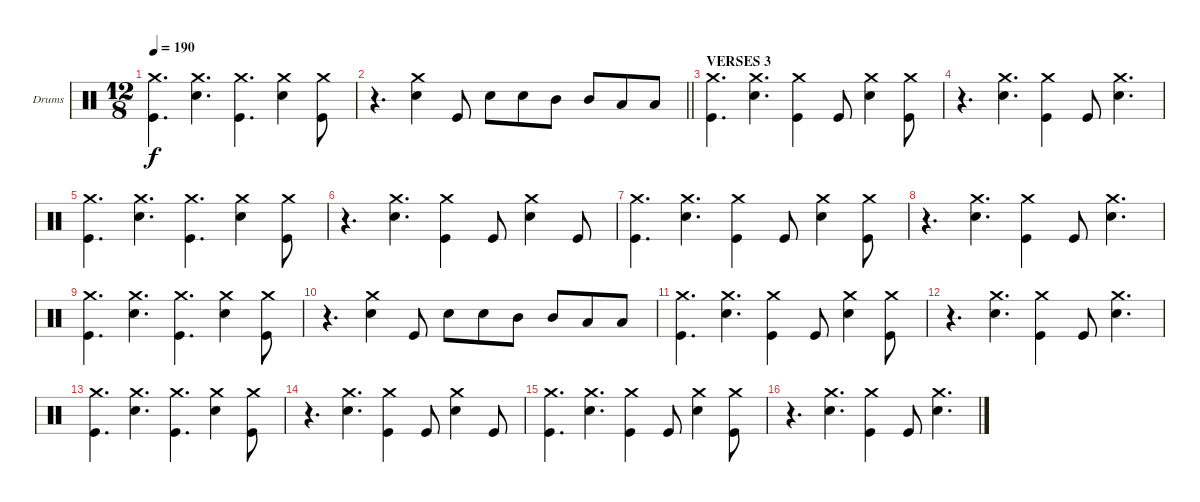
\bracketExtendMode groupsimilarinstruments
\firstSystemTrackNameOrientation horizontal
\otherSystemsTrackNameOrientation horizontal
\track ("Drumkit" "Drums") {instrument percussion}
\staff {score}
\articulation defaults
\ts (12 8)
\tempo 190
\clef neutral
\ks aminor
("Crash medium (hit)" "Kick (hit)").4{d dy f} ("Crash medium (hit)" "Snare (hit) 2").4{d} ("Crash medium (hit)" "Kick (hit)").4{d} ("Crash medium (hit)" "Snare (hit) 2").4 ("Crash medium (hit)" "Kick (hit)").8 |
\barLineRight lightlight
r.4{d} ("Crash medium (hit)" "Snare (hit) 2").4 "Kick (hit)".8 "Snare (hit) 2".8 "Snare (hit) 2".8 "Mid Tom (hit)".8 "Mid Tom (hit)".8 "Low Tom (hit)".8 "Low Tom (hit)".8 |
\section ("" "VERSES 3")
("Crash medium (hit)" "Kick (hit)").4{d} ("Crash medium (hit)" "Snare (hit) 2").4{d} ("Crash medium (hit)" "Kick (hit)").4 "Kick (hit)".8 ("Crash medium (hit)" "Snare (hit) 2").4 ("Crash medium (hit)" "Kick (hit)").8 |
r.4{d} ("Crash medium (hit)" "Snare (hit) 2").4{d} ("Crash medium (hit)" "Kick (hit)").4 "Kick (hit)".8 ("Crash medium (hit)" "Snare (hit) 2").4{d} |
("Crash medium (hit)" "Kick (hit)").4{d} ("Crash medium (hit)" "Snare (hit) 2").4{d} ("Crash medium (hit)" "Kick (hit)").4{d} ("Crash medium (hit)" "Snare (hit) 2").4 ("Crash medium (hit)" "Kick (hit)").8 |
r.4{d} ("Crash medium (hit)" "Snare (hit) 2").4{d} ("Crash medium (hit)" "Kick (hit)").4 "Kick (hit)".8 ("Crash medium (hit)" "Snare (hit) 2").4 "Kick (hit)".8 |
("Crash medium (hit)" "Kick (hit)").4{d} ("Crash medium (hit)" "Snare (hit) 2").4{d} ("Crash medium (hit)" "Kick (hit)").4 "Kick (hit)".8 ("Crash medium (hit)" "Snare (hit) 2").4 ("Crash medium (hit)" "Kick (hit)").8 |
r.4{d} ("Crash medium (hit)" "Snare (hit) 2").4{d} ("Crash medium (hit)" "Kick (hit)").4 "Kick (hit)".8 ("Crash medium (hit)" "Snare (hit) 2").4{d} |
("Crash medium (hit)" "Kick (hit)").4{d} ("Crash medium (hit)" "Snare (hit) 2").4{d} ("Crash medium (hit)" "Kick (hit)").4{d} ("Crash medium (hit)" "Snare (hit) 2").4 ("Crash medium (hit)" "Kick (hit)").8 |
r.4{d} ("Crash medium (hit)" "Snare (hit) 2").4 "Kick (hit)".8 "Snare (hit) 2".8 "Snare (hit) 2".8 "Mid Tom (hit)".8 "Mid Tom (hit)".8 "Low Tom (hit)".8 "Low Tom (hit)".8 |
("Crash medium (hit)" "Kick (hit)").4{d} ("Crash medium (hit)" "Snare (hit) 2").4{d} ("Crash medium (hit)" "Kick (hit)").4 "Kick (hit)".8 ("Crash medium (hit)" "Snare (hit) 2").4 ("Crash medium (hit)" "Kick (hit)").8 |
r.4{d} ("Crash medium (hit)" "Snare (hit) 2").4{d} ("Crash medium (hit)" "Kick (hit)").4 "Kick (hit)".8 ("Crash medium (hit)" "Snare (hit) 2").4{d} |
("Crash medium (hit)" "Kick (hit)").4{d} ("Crash medium (hit)" "Snare (hit) 2").4{d} ("Crash medium (hit)" "Kick (hit)").4{d} ("Crash medium (hit)" "Snare (hit) 2").4 ("Crash medium (hit)" "Kick (hit)").8 |
r.4{d} ("Crash medium (hit)" "Snare (hit) 2").4{d} ("Crash medium (hit)" "Kick (hit)").4 "Kick (hit)".8 ("Crash medium (hit)" "Snare (hit) 2").4 "Kick (hit)".8 |
("Crash medium (hit)" "Kick (hit)").4{d} ("Crash medium (hit)" "Snare (hit) 2").4{d} ("Crash medium (hit)" "Kick (hit)").4 "Kick (hit)".8 ("Crash medium (hit)" "Snare (hit) 2").4 ("Crash medium (hit)" "Kick (hit)").8 |
r.4{d} ("Crash medium (hit)" "Snare (hit) 2").4{d} ("Crash medium (hit)" "Kick (hit)").4 "Kick (hit)".8 ("Crash medium (hit)" "Snare (hit) 2").4{d}
